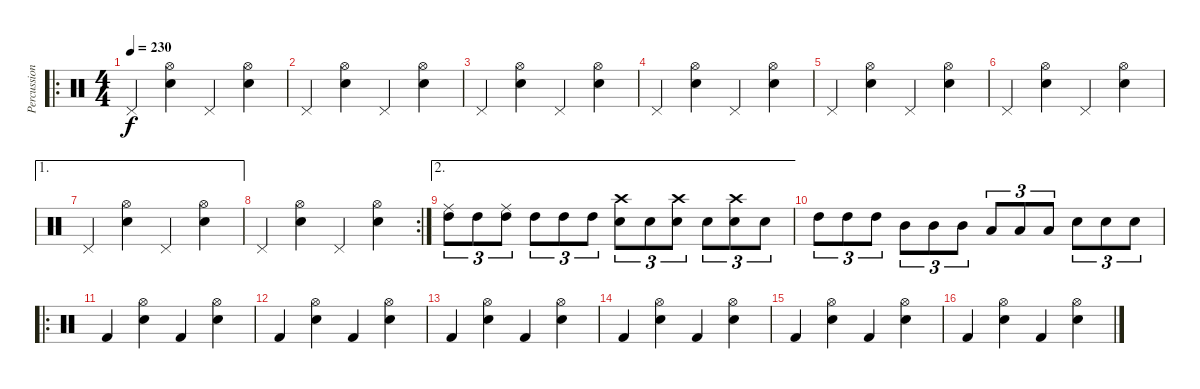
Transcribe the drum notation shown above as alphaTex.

\track ("Percussion" "Percussion") {instrument percussion}
\staff {score}
\articulation defaults
\ro
\ts (4 4)
\tempo 230
\clef neutral
\ks c "Pedal Hi-Hat (hit)".4{dy f}
("Hi-Hat (open)" "Electric Snare (hit)").4 "Pedal Hi-Hat (hit)".4 ("Hi-Hat (open)" "Electric Snare (hit)").4 |
"Pedal Hi-Hat (hit)".4 ("Hi-Hat (open)" "Electric Snare (hit)").4 "Pedal Hi-Hat (hit)".4 ("Hi-Hat (open)" "Electric Snare (hit)").4 |
"Pedal Hi-Hat (hit)".4 ("Hi-Hat (open)" "Electric Snare (hit)").4 "Pedal Hi-Hat (hit)".4 ("Hi-Hat (open)" "Electric Snare (hit)").4 |
"Pedal Hi-Hat (hit)".4 ("Hi-Hat (open)" "Electric Snare (hit)").4 "Pedal Hi-Hat (hit)".4 ("Hi-Hat (open)" "Electric Snare (hit)").4 |
"Pedal Hi-Hat (hit)".4 ("Hi-Hat (open)" "Electric Snare (hit)").4 "Pedal Hi-Hat (hit)".4 ("Hi-Hat (open)" "Electric Snare (hit)").4 |
"Pedal Hi-Hat (hit)".4 ("Hi-Hat (open)" "Electric Snare (hit)").4 "Pedal Hi-Hat (hit)".4 ("Hi-Hat (open)" "Electric Snare (hit)").4 |
\ae 1 "Pedal Hi-Hat (hit)".4
("Hi-Hat (open)" "Electric Snare (hit)").4 "Pedal Hi-Hat (hit)".4 ("Hi-Hat (open)" "Electric Snare (hit)").4 |
\rc 2 "Pedal Hi-Hat (hit)".4
("Hi-Hat (open)" "Electric Snare (hit)").4 "Pedal Hi-Hat (hit)".4 ("Hi-Hat (open)" "Electric Snare (hit)").4 |
\ae 2
("Ride (middle)" "High Tom (hit)").8{tu (3 2)} "High Tom (hit)".8{tu (3 2)} ("Ride (middle)" "High Tom (hit)").8{tu (3 2)} "High Tom (hit)".8{tu (3 2)} "High Tom (hit)".8{tu (3 2)} "High Tom (hit)".8{tu (3 2)} ("Crash high (hit)" "Electric Snare (hit)").8{tu (3 2)} "Electric Snare (hit)".8{tu (3 2)} ("Crash high (hit)" "Electric Snare (hit)").8{tu (3 2)} "Electric Snare (hit)".8{tu (3 2)} ("Crash high (hit)" "Electric Snare (hit)").8{tu (3 2)} "Electric Snare (hit)".8{tu (3 2)} |
"High Tom (hit)".8{tu (3 2)} "High Tom (hit)".8{tu (3 2)} "High Tom (hit)".8{tu (3 2)} "Mid Tom (hit)".8{tu (3 2)} "Mid Tom (hit)".8{tu (3 2)} "Mid Tom (hit)".8{tu (3 2)} "Low Tom (hit)".8{tu (3 2)} "Low Tom (hit)".8{tu (3 2)} "Low Tom (hit)".8{tu (3 2)} "Electric Snare (hit)".8{tu (3 2)} "Electric Snare (hit)".8{tu (3 2)} "Electric Snare (hit)".8{tu (3 2)} |
\ro "Kick (hit) 2".4
("Hi-Hat (open)" "Electric Snare (hit)").4 "Kick (hit) 2".4 ("Hi-Hat (open)" "Electric Snare (hit)").4 |
"Kick (hit) 2".4 ("Hi-Hat (open)" "Electric Snare (hit)").4 "Kick (hit) 2".4 ("Hi-Hat (open)" "Electric Snare (hit)").4 |
"Kick (hit) 2".4 ("Hi-Hat (open)" "Electric Snare (hit)").4 "Kick (hit) 2".4 ("Hi-Hat (open)" "Electric Snare (hit)").4 |
"Kick (hit) 2".4 ("Hi-Hat (open)" "Electric Snare (hit)").4 "Kick (hit) 2".4 ("Hi-Hat (open)" "Electric Snare (hit)").4 |
"Kick (hit) 2".4 ("Hi-Hat (open)" "Electric Snare (hit)").4 "Kick (hit) 2".4 ("Hi-Hat (open)" "Electric Snare (hit)").4 |
"Kick (hit) 2".4 ("Hi-Hat (open)" "Electric Snare (hit)").4 "Kick (hit) 2".4 ("Hi-Hat (open)" "Electric Snare (hit)").4
